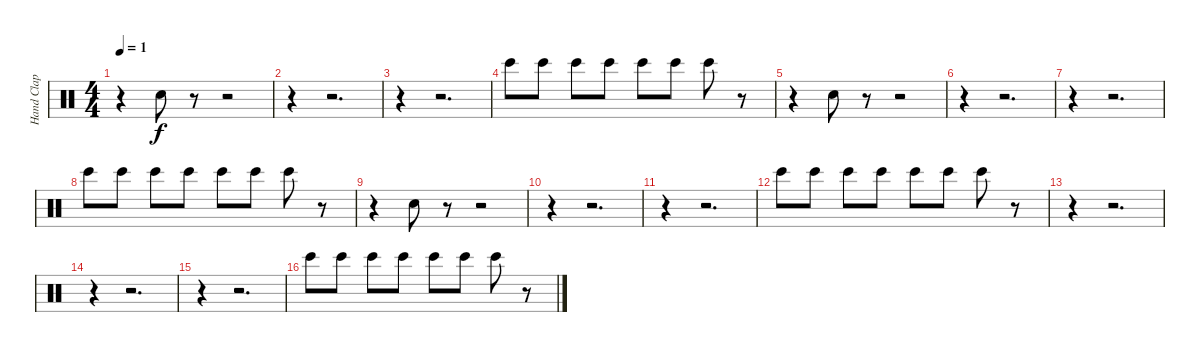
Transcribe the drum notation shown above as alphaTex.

\track ("Hand Clap" "Hand Clap") {instrument percussion}
\staff {score}
\articulation defaults
\ts (4 4)
\tempo 1
\clef neutral
\ks c
r.4{dy f} "Hand Clap (hit)".8 r.8 r.2 |
r.4 r.2{d} |
r.4 r.2{d} |
"Bongo High (hit)".8 "Bongo High (hit)".8 "Bongo High (hit)".8 "Bongo High (hit)".8 "Bongo High (hit)".8 "Bongo High (hit)".8 "Bongo High (hit)".8 r.8 |
r.4 "Hand Clap (hit)".8 r.8 r.2 |
r.4 r.2{d} |
r.4 r.2{d} |
"Bongo High (hit)".8 "Bongo High (hit)".8 "Bongo High (hit)".8 "Bongo High (hit)".8 "Bongo High (hit)".8 "Bongo High (hit)".8 "Bongo High (hit)".8 r.8 |
r.4 "Hand Clap (hit)".8 r.8 r.2 |
r.4 r.2{d} |
r.4 r.2{d} |
"Bongo High (hit)".8 "Bongo High (hit)".8 "Bongo High (hit)".8 "Bongo High (hit)".8 "Bongo High (hit)".8 "Bongo High (hit)".8 "Bongo High (hit)".8 r.8 |
r.4 r.2{d} |
r.4 r.2{d} |
r.4 r.2{d} |
"Bongo High (hit)".8 "Bongo High (hit)".8 "Bongo High (hit)".8 "Bongo High (hit)".8 "Bongo High (hit)".8 "Bongo High (hit)".8 "Bongo High (hit)".8 r.8
